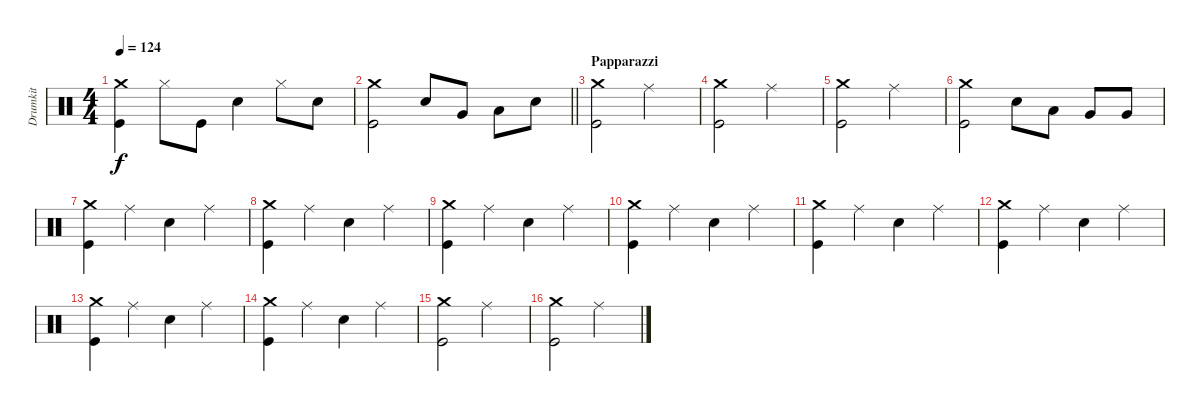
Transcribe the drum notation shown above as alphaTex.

\track ("Drumkit" "Drumkit") {instrument percussion}
\staff {score}
\articulation defaults
\ts (4 4)
\tempo 124
\clef neutral
\ks c
("Crash medium (hit)" "Kick (hit)").4{dy f} "Hi-Hat (closed)".8 "Kick (hit)".8 "Snare (hit) 2".4 "Hi-Hat (closed)".8 "Snare (hit) 2".8 |
\barLineRight lightlight
("Kick (hit)" "Crash medium (hit)").2 "Snare (hit) 2".8 "Very Low Tom (hit)".8 "Low Floor Tom (hit)".8 "Snare (hit) 2".8 |
\section ("" "Papparazzi")
("Kick (hit)" "Crash medium (hit)").2 "Ride (middle)".2 |
("Kick (hit)" "Crash medium (hit)").2 "Ride (middle)".2 |
("Kick (hit)" "Crash medium (hit)").2 "Ride (middle)".2 |
("Kick (hit)" "Crash medium (hit)").2 "Snare (hit) 2".8 "Low Tom (hit)".8 "Very Low Tom (hit)".8 "Very Low Tom (hit)".8 |
("Kick (hit)" "Crash medium (hit)").4 "Ride (middle)".4 "Snare (hit) 2".4 "Ride (middle)".4 |
("Kick (hit)" "Crash medium (hit)").4 "Ride (middle)".4 "Snare (hit) 2".4 "Ride (middle)".4 |
("Kick (hit)" "Crash medium (hit)").4 "Ride (middle)".4 "Snare (hit) 2".4 "Ride (middle)".4 |
("Kick (hit)" "Crash medium (hit)").4 "Ride (middle)".4 "Snare (hit) 2".4 "Ride (middle)".4 |
("Kick (hit)" "Crash medium (hit)").4 "Ride (middle)".4 "Snare (hit) 2".4 "Ride (middle)".4 |
("Kick (hit)" "Crash medium (hit)").4 "Ride (middle)".4 "Snare (hit) 2".4 "Ride (middle)".4 |
("Kick (hit)" "Crash medium (hit)").4 "Ride (middle)".4 "Snare (hit) 2".4 "Ride (middle)".4 |
("Kick (hit)" "Crash medium (hit)").4 "Ride (middle)".4 "Snare (hit) 2".4 "Ride (middle)".4 |
("Kick (hit)" "Crash medium (hit)").2 "Ride (middle)".2 |
("Kick (hit)" "Crash medium (hit)").2 "Ride (middle)".2
